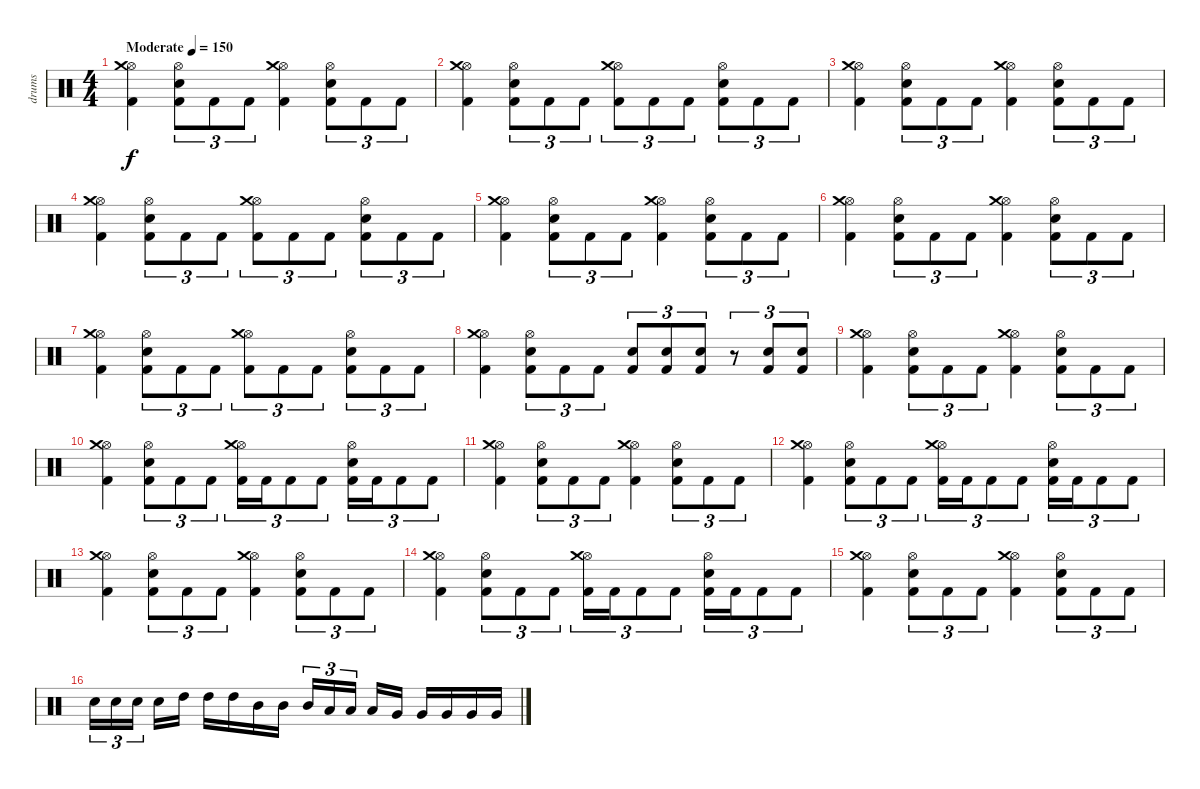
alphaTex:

\track ("drums" "drums") {instrument percussion}
\staff {score}
\articulation defaults
\ts (4 4)
\tempo (150 "Moderate")
\clef neutral
\ks c
("Hi-Hat (open)" "Crash medium (hit)" "Kick (hit) 2").4{dy f} ("Snare (hit) 2" "Hi-Hat (open)" "Kick (hit) 2").8{tu (3 2)} "Kick (hit) 2".8{tu (3 2)} "Kick (hit) 2".8{tu (3 2)} ("Hi-Hat (open)" "Crash medium (hit)" "Kick (hit) 2").4 ("Snare (hit) 2" "Hi-Hat (open)" "Kick (hit) 2").8{tu (3 2)} "Kick (hit) 2".8{tu (3 2)} "Kick (hit) 2".8{tu (3 2)} |
("Hi-Hat (open)" "Crash medium (hit)" "Kick (hit) 2").4 ("Snare (hit) 2" "Hi-Hat (open)" "Kick (hit) 2").8{tu (3 2)} "Kick (hit) 2".8{tu (3 2)} "Kick (hit) 2".8{tu (3 2)} ("Hi-Hat (open)" "Crash medium (hit)" "Kick (hit) 2").8{tu (3 2)} "Kick (hit) 2".8{tu (3 2)} "Kick (hit) 2".8{tu (3 2)} ("Snare (hit) 2" "Hi-Hat (open)" "Kick (hit) 2").8{tu (3 2)} "Kick (hit) 2".8{tu (3 2)} "Kick (hit) 2".8{tu (3 2)} |
("Hi-Hat (open)" "Crash medium (hit)" "Kick (hit) 2").4 ("Snare (hit) 2" "Hi-Hat (open)" "Kick (hit) 2").8{tu (3 2)} "Kick (hit) 2".8{tu (3 2)} "Kick (hit) 2".8{tu (3 2)} ("Hi-Hat (open)" "Crash medium (hit)" "Kick (hit) 2").4 ("Snare (hit) 2" "Hi-Hat (open)" "Kick (hit) 2").8{tu (3 2)} "Kick (hit) 2".8{tu (3 2)} "Kick (hit) 2".8{tu (3 2)} |
("Hi-Hat (open)" "Crash medium (hit)" "Kick (hit) 2").4 ("Snare (hit) 2" "Hi-Hat (open)" "Kick (hit) 2").8{tu (3 2)} "Kick (hit) 2".8{tu (3 2)} "Kick (hit) 2".8{tu (3 2)} ("Hi-Hat (open)" "Crash medium (hit)" "Kick (hit) 2").8{tu (3 2)} "Kick (hit) 2".8{tu (3 2)} "Kick (hit) 2".8{tu (3 2)} ("Snare (hit) 2" "Hi-Hat (open)" "Kick (hit) 2").8{tu (3 2)} "Kick (hit) 2".8{tu (3 2)} "Kick (hit) 2".8{tu (3 2)} |
("Hi-Hat (open)" "Crash medium (hit)" "Kick (hit) 2").4 ("Snare (hit) 2" "Hi-Hat (open)" "Kick (hit) 2").8{tu (3 2)} "Kick (hit) 2".8{tu (3 2)} "Kick (hit) 2".8{tu (3 2)} ("Hi-Hat (open)" "Crash medium (hit)" "Kick (hit) 2").4 ("Snare (hit) 2" "Hi-Hat (open)" "Kick (hit) 2").8{tu (3 2)} "Kick (hit) 2".8{tu (3 2)} "Kick (hit) 2".8{tu (3 2)} |
("Hi-Hat (open)" "Crash medium (hit)" "Kick (hit) 2").4 ("Snare (hit) 2" "Hi-Hat (open)" "Kick (hit) 2").8{tu (3 2)} "Kick (hit) 2".8{tu (3 2)} "Kick (hit) 2".8{tu (3 2)} ("Hi-Hat (open)" "Crash medium (hit)" "Kick (hit) 2").4 ("Snare (hit) 2" "Hi-Hat (open)" "Kick (hit) 2").8{tu (3 2)} "Kick (hit) 2".8{tu (3 2)} "Kick (hit) 2".8{tu (3 2)} |
("Hi-Hat (open)" "Crash medium (hit)" "Kick (hit) 2").4 ("Snare (hit) 2" "Hi-Hat (open)" "Kick (hit) 2").8{tu (3 2)} "Kick (hit) 2".8{tu (3 2)} "Kick (hit) 2".8{tu (3 2)} ("Hi-Hat (open)" "Crash medium (hit)" "Kick (hit) 2").8{tu (3 2)} "Kick (hit) 2".8{tu (3 2)} "Kick (hit) 2".8{tu (3 2)} ("Snare (hit) 2" "Hi-Hat (open)" "Kick (hit) 2").8{tu (3 2)} "Kick (hit) 2".8{tu (3 2)} "Kick (hit) 2".8{tu (3 2)} |
("Hi-Hat (open)" "Crash medium (hit)" "Kick (hit) 2").4 ("Snare (hit) 2" "Hi-Hat (open)" "Kick (hit) 2").8{tu (3 2)} "Kick (hit) 2".8{tu (3 2)} "Kick (hit) 2".8{tu (3 2)} ("Snare (hit) 2" "Kick (hit) 2").8{tu (3 2)} ("Snare (hit) 2" "Kick (hit) 2").8{tu (3 2)} ("Snare (hit) 2" "Kick (hit) 2").8{tu (3 2)} r.8{tu (3 2)} ("Snare (hit) 2" "Kick (hit) 2").8{tu (3 2)} ("Snare (hit) 2" "Kick (hit) 2").8{tu (3 2)} |
("Hi-Hat (open)" "Crash medium (hit)" "Kick (hit) 2").4 ("Snare (hit) 2" "Hi-Hat (open)" "Kick (hit) 2").8{tu (3 2)} "Kick (hit) 2".8{tu (3 2)} "Kick (hit) 2".8{tu (3 2)} ("Hi-Hat (open)" "Crash medium (hit)" "Kick (hit) 2").4 ("Snare (hit) 2" "Hi-Hat (open)" "Kick (hit) 2").8{tu (3 2)} "Kick (hit) 2".8{tu (3 2)} "Kick (hit) 2".8{tu (3 2)} |
("Hi-Hat (open)" "Crash medium (hit)" "Kick (hit) 2").4 ("Snare (hit) 2" "Hi-Hat (open)" "Kick (hit) 2").8{tu (3 2)} "Kick (hit) 2".8{tu (3 2)} "Kick (hit) 2".8{tu (3 2)} ("Hi-Hat (open)" "Crash medium (hit)" "Kick (hit) 2").16{tu (3 2)} "Kick (hit) 2".16{tu (3 2)} "Kick (hit) 2".8{tu (3 2)} "Kick (hit) 2".8{tu (3 2)} ("Hi-Hat (open)" "Snare (hit) 2" "Kick (hit) 2").16{tu (3 2)} "Kick (hit) 2".16{tu (3 2)} "Kick (hit) 2".8{tu (3 2)} "Kick (hit) 2".8{tu (3 2)} |
("Hi-Hat (open)" "Crash medium (hit)" "Kick (hit) 2").4 ("Snare (hit) 2" "Hi-Hat (open)" "Kick (hit) 2").8{tu (3 2)} "Kick (hit) 2".8{tu (3 2)} "Kick (hit) 2".8{tu (3 2)} ("Hi-Hat (open)" "Crash medium (hit)" "Kick (hit) 2").4 ("Snare (hit) 2" "Hi-Hat (open)" "Kick (hit) 2").8{tu (3 2)} "Kick (hit) 2".8{tu (3 2)} "Kick (hit) 2".8{tu (3 2)} |
("Hi-Hat (open)" "Crash medium (hit)" "Kick (hit) 2").4 ("Snare (hit) 2" "Hi-Hat (open)" "Kick (hit) 2").8{tu (3 2)} "Kick (hit) 2".8{tu (3 2)} "Kick (hit) 2".8{tu (3 2)} ("Hi-Hat (open)" "Crash medium (hit)" "Kick (hit) 2").16{tu (3 2)} "Kick (hit) 2".16{tu (3 2)} "Kick (hit) 2".8{tu (3 2)} "Kick (hit) 2".8{tu (3 2)} ("Hi-Hat (open)" "Snare (hit) 2" "Kick (hit) 2").16{tu (3 2)} "Kick (hit) 2".16{tu (3 2)} "Kick (hit) 2".8{tu (3 2)} "Kick (hit) 2".8{tu (3 2)} |
("Hi-Hat (open)" "Crash medium (hit)" "Kick (hit) 2").4 ("Snare (hit) 2" "Hi-Hat (open)" "Kick (hit) 2").8{tu (3 2)} "Kick (hit) 2".8{tu (3 2)} "Kick (hit) 2".8{tu (3 2)} ("Hi-Hat (open)" "Crash medium (hit)" "Kick (hit) 2").4 ("Snare (hit) 2" "Hi-Hat (open)" "Kick (hit) 2").8{tu (3 2)} "Kick (hit) 2".8{tu (3 2)} "Kick (hit) 2".8{tu (3 2)} |
("Hi-Hat (open)" "Crash medium (hit)" "Kick (hit) 2").4 ("Snare (hit) 2" "Hi-Hat (open)" "Kick (hit) 2").8{tu (3 2)} "Kick (hit) 2".8{tu (3 2)} "Kick (hit) 2".8{tu (3 2)} ("Hi-Hat (open)" "Crash medium (hit)" "Kick (hit) 2").16{tu (3 2)} "Kick (hit) 2".16{tu (3 2)} "Kick (hit) 2".8{tu (3 2)} "Kick (hit) 2".8{tu (3 2)} ("Hi-Hat (open)" "Snare (hit) 2" "Kick (hit) 2").16{tu (3 2)} "Kick (hit) 2".16{tu (3 2)} "Kick (hit) 2".8{tu (3 2)} "Kick (hit) 2".8{tu (3 2)} |
("Hi-Hat (open)" "Crash medium (hit)" "Kick (hit) 2").4 ("Snare (hit) 2" "Hi-Hat (open)" "Kick (hit) 2").8{tu (3 2)} "Kick (hit) 2".8{tu (3 2)} "Kick (hit) 2".8{tu (3 2)} ("Hi-Hat (open)" "Crash medium (hit)" "Kick (hit) 2").4 ("Snare (hit) 2" "Hi-Hat (open)" "Kick (hit) 2").8{tu (3 2)} "Kick (hit) 2".8{tu (3 2)} "Kick (hit) 2".8{tu (3 2)} |
"Electric Snare (hit)".16{tu (3 2)} "Electric Snare (hit)".16{tu (3 2)} "Electric Snare (hit)".16{tu (3 2) beam splitsecondary} "Electric Snare (hit)".16 "High Tom (hit)".16 "High Tom (hit)".16 "High Tom (hit)".16 "Mid Tom (hit)".16 "Mid Tom (hit)".16 "Mid Tom (hit)".16{tu (3 2)} "Low Tom (hit)".16{tu (3 2)} "Low Tom (hit)".16{tu (3 2) beam splitsecondary} "Low Tom (hit)".16 "Very Low Tom (hit)".16 "Very Low Tom (hit)".16 "Very Low Tom (hit)".16 "Very Low Tom (hit)".16 "Very Low Tom (hit)".16
